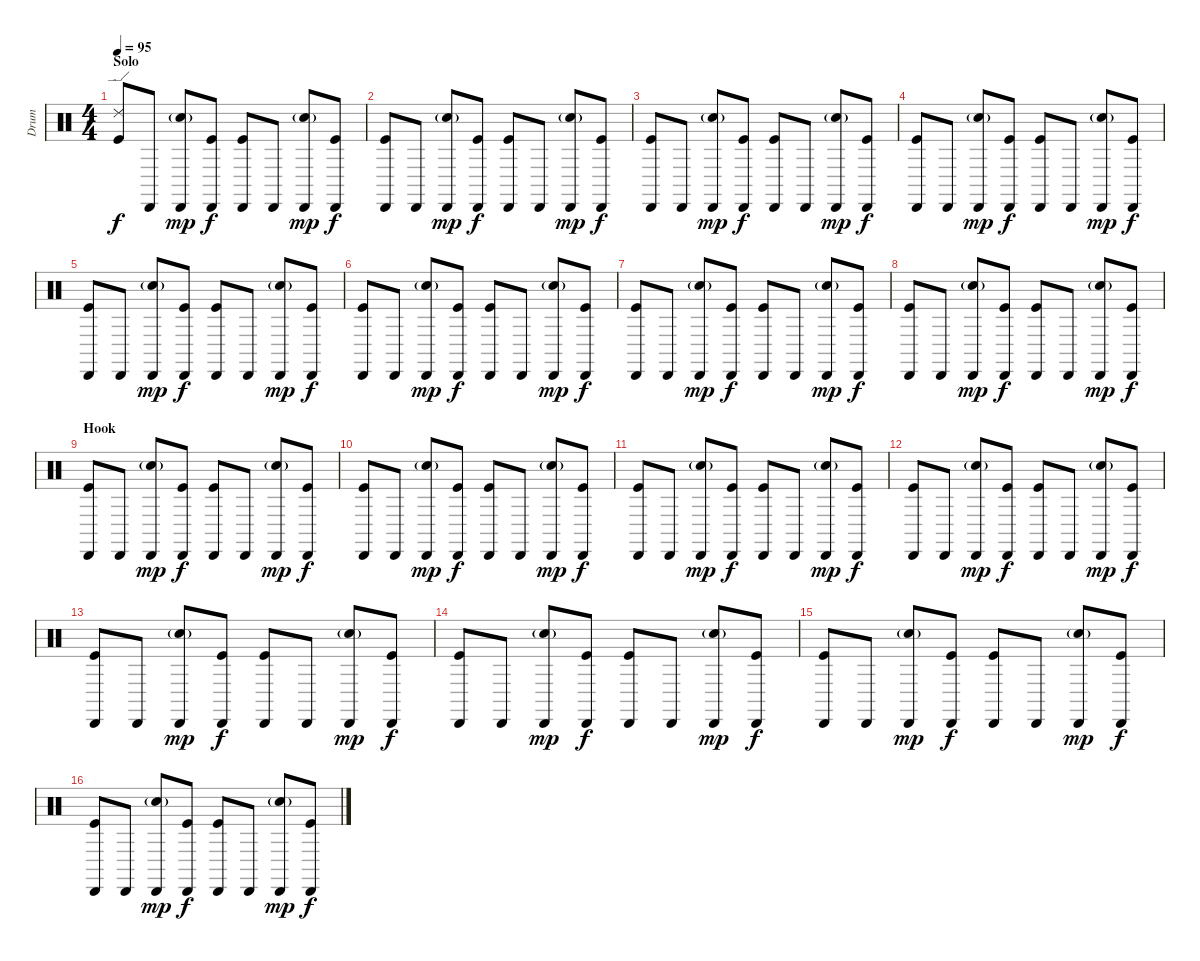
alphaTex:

\track ("Drum" "Drum") {instrument percussion}
\staff {score}
\articulation defaults
\ts (4 4)
\section ("" "Solo")
\tempo 95
\clef neutral
\ks c
("Ride (edge) 2" "Kick (hit)").8{dy f} "Cabasa (hit)".8 ("Cabasa (hit)" "Electric Snare (hit)"{g}).8{dy mp} ("Cabasa (hit)" "Kick (hit)").8{dy f} ("Cabasa (hit)" "Kick (hit)").8 "Cabasa (hit)".8 ("Cabasa (hit)" "Electric Snare (hit)"{g}).8{dy mp} ("Cabasa (hit)" "Kick (hit)").8{dy f} |
("Cabasa (hit)" "Kick (hit)").8 "Cabasa (hit)".8 ("Cabasa (hit)" "Electric Snare (hit)"{g}).8{dy mp} ("Cabasa (hit)" "Kick (hit)").8{dy f} ("Cabasa (hit)" "Kick (hit)").8 "Cabasa (hit)".8 ("Cabasa (hit)" "Electric Snare (hit)"{g}).8{dy mp} ("Cabasa (hit)" "Kick (hit)").8{dy f} |
("Cabasa (hit)" "Kick (hit)").8 "Cabasa (hit)".8 ("Cabasa (hit)" "Electric Snare (hit)"{g}).8{dy mp} ("Cabasa (hit)" "Kick (hit)").8{dy f} ("Cabasa (hit)" "Kick (hit)").8 "Cabasa (hit)".8 ("Cabasa (hit)" "Electric Snare (hit)"{g}).8{dy mp} ("Cabasa (hit)" "Kick (hit)").8{dy f} |
("Cabasa (hit)" "Kick (hit)").8 "Cabasa (hit)".8 ("Cabasa (hit)" "Electric Snare (hit)"{g}).8{dy mp} ("Cabasa (hit)" "Kick (hit)").8{dy f} ("Cabasa (hit)" "Kick (hit)").8 "Cabasa (hit)".8 ("Cabasa (hit)" "Electric Snare (hit)"{g}).8{dy mp} ("Cabasa (hit)" "Kick (hit)").8{dy f} |
("Cabasa (hit)" "Kick (hit)").8 "Cabasa (hit)".8 ("Cabasa (hit)" "Electric Snare (hit)"{g}).8{dy mp} ("Cabasa (hit)" "Kick (hit)").8{dy f} ("Cabasa (hit)" "Kick (hit)").8 "Cabasa (hit)".8 ("Cabasa (hit)" "Electric Snare (hit)"{g}).8{dy mp} ("Cabasa (hit)" "Kick (hit)").8{dy f} |
("Cabasa (hit)" "Kick (hit)").8 "Cabasa (hit)".8 ("Cabasa (hit)" "Electric Snare (hit)"{g}).8{dy mp} ("Cabasa (hit)" "Kick (hit)").8{dy f} ("Cabasa (hit)" "Kick (hit)").8 "Cabasa (hit)".8 ("Cabasa (hit)" "Electric Snare (hit)"{g}).8{dy mp} ("Cabasa (hit)" "Kick (hit)").8{dy f} |
("Cabasa (hit)" "Kick (hit)").8 "Cabasa (hit)".8 ("Cabasa (hit)" "Electric Snare (hit)"{g}).8{dy mp} ("Cabasa (hit)" "Kick (hit)").8{dy f} ("Cabasa (hit)" "Kick (hit)").8 "Cabasa (hit)".8 ("Cabasa (hit)" "Electric Snare (hit)"{g}).8{dy mp} ("Cabasa (hit)" "Kick (hit)").8{dy f} |
("Cabasa (hit)" "Kick (hit)").8 "Cabasa (hit)".8 ("Cabasa (hit)" "Electric Snare (hit)"{g}).8{dy mp} ("Cabasa (hit)" "Kick (hit)").8{dy f} ("Cabasa (hit)" "Kick (hit)").8 "Cabasa (hit)".8 ("Cabasa (hit)" "Electric Snare (hit)"{g}).8{dy mp} ("Cabasa (hit)" "Kick (hit)").8{dy f} |
\section ("" "Hook")
("Cabasa (hit)" "Kick (hit)").8 "Cabasa (hit)".8 ("Cabasa (hit)" "Electric Snare (hit)"{g}).8{dy mp} ("Cabasa (hit)" "Kick (hit)").8{dy f} ("Cabasa (hit)" "Kick (hit)").8 "Cabasa (hit)".8 ("Cabasa (hit)" "Electric Snare (hit)"{g}).8{dy mp} ("Cabasa (hit)" "Kick (hit)").8{dy f} |
("Cabasa (hit)" "Kick (hit)").8 "Cabasa (hit)".8 ("Cabasa (hit)" "Electric Snare (hit)"{g}).8{dy mp} ("Cabasa (hit)" "Kick (hit)").8{dy f} ("Cabasa (hit)" "Kick (hit)").8 "Cabasa (hit)".8 ("Cabasa (hit)" "Electric Snare (hit)"{g}).8{dy mp} ("Cabasa (hit)" "Kick (hit)").8{dy f} |
("Cabasa (hit)" "Kick (hit)").8 "Cabasa (hit)".8 ("Cabasa (hit)" "Electric Snare (hit)"{g}).8{dy mp} ("Cabasa (hit)" "Kick (hit)").8{dy f} ("Cabasa (hit)" "Kick (hit)").8 "Cabasa (hit)".8 ("Cabasa (hit)" "Electric Snare (hit)"{g}).8{dy mp} ("Cabasa (hit)" "Kick (hit)").8{dy f} |
("Cabasa (hit)" "Kick (hit)").8 "Cabasa (hit)".8 ("Cabasa (hit)" "Electric Snare (hit)"{g}).8{dy mp} ("Cabasa (hit)" "Kick (hit)").8{dy f} ("Cabasa (hit)" "Kick (hit)").8 "Cabasa (hit)".8 ("Cabasa (hit)" "Electric Snare (hit)"{g}).8{dy mp} ("Cabasa (hit)" "Kick (hit)").8{dy f} |
("Cabasa (hit)" "Kick (hit)").8 "Cabasa (hit)".8 ("Cabasa (hit)" "Electric Snare (hit)"{g}).8{dy mp} ("Cabasa (hit)" "Kick (hit)").8{dy f} ("Cabasa (hit)" "Kick (hit)").8 "Cabasa (hit)".8 ("Cabasa (hit)" "Electric Snare (hit)"{g}).8{dy mp} ("Cabasa (hit)" "Kick (hit)").8{dy f} |
("Cabasa (hit)" "Kick (hit)").8 "Cabasa (hit)".8 ("Cabasa (hit)" "Electric Snare (hit)"{g}).8{dy mp} ("Cabasa (hit)" "Kick (hit)").8{dy f} ("Cabasa (hit)" "Kick (hit)").8 "Cabasa (hit)".8 ("Cabasa (hit)" "Electric Snare (hit)"{g}).8{dy mp} ("Cabasa (hit)" "Kick (hit)").8{dy f} |
("Cabasa (hit)" "Kick (hit)").8 "Cabasa (hit)".8 ("Cabasa (hit)" "Electric Snare (hit)"{g}).8{dy mp} ("Cabasa (hit)" "Kick (hit)").8{dy f} ("Cabasa (hit)" "Kick (hit)").8 "Cabasa (hit)".8 ("Cabasa (hit)" "Electric Snare (hit)"{g}).8{dy mp} ("Cabasa (hit)" "Kick (hit)").8{dy f} |
("Cabasa (hit)" "Kick (hit)").8 "Cabasa (hit)".8 ("Cabasa (hit)" "Electric Snare (hit)"{g}).8{dy mp} ("Cabasa (hit)" "Kick (hit)").8{dy f} ("Cabasa (hit)" "Kick (hit)").8 "Cabasa (hit)".8 ("Cabasa (hit)" "Electric Snare (hit)"{g}).8{dy mp} ("Cabasa (hit)" "Kick (hit)").8{dy f}
